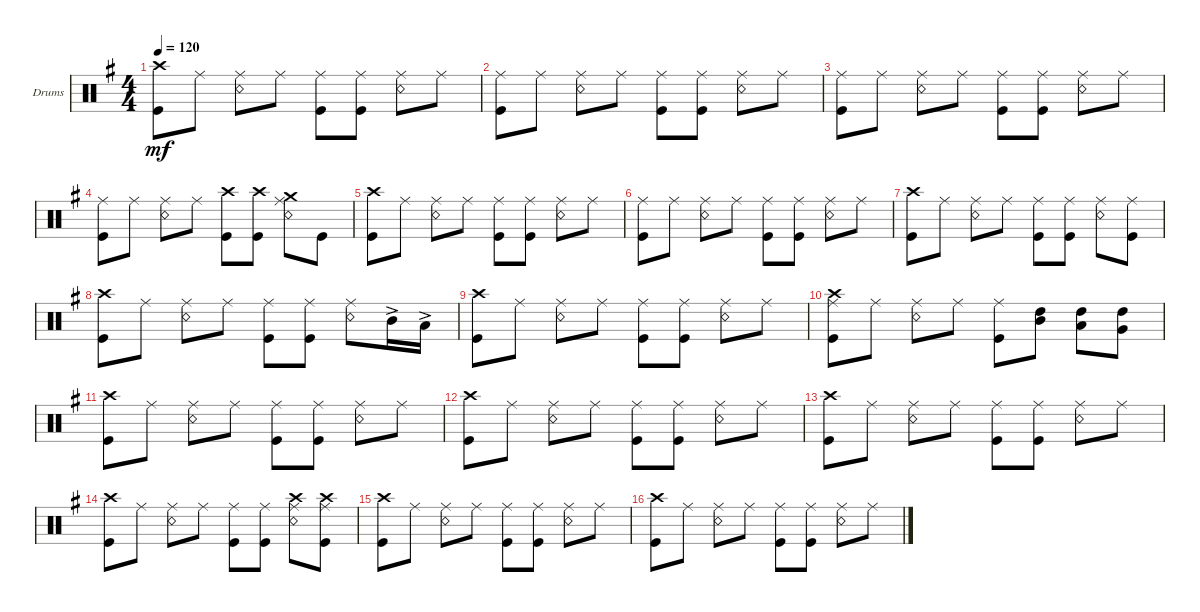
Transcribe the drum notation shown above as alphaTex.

\defaultSystemsLayout 4
\bracketExtendMode groupsimilarinstruments
\firstSystemTrackNameOrientation horizontal
\otherSystemsTrackNameOrientation horizontal
\track ("Drumkit" "Drums") {instrument percussion}
\staff {score}
\articulation defaults
\ts (4 4)
\tempo 120
\clef neutral
\ks eminor
("Kick (hit)" "Crash high (hit)").8{dy mf} "Ride (middle)".8 ("Ride (middle)" "Snare (rim shot)").8 "Ride (middle)".8 ("Ride (middle)" "Kick (hit)").8 ("Kick (hit)" "Ride (middle)").8 ("Ride (middle)" "Snare (rim shot)").8 "Ride (middle)".8 |
("Kick (hit)" "Ride (middle)").8 "Ride (middle)".8 ("Ride (middle)" "Snare (rim shot)").8 "Ride (middle)".8 ("Ride (middle)" "Kick (hit)").8 ("Kick (hit)" "Ride (middle)").8 ("Ride (middle)" "Snare (rim shot)").8 "Ride (middle)".8 |
("Kick (hit)" "Ride (middle)").8 "Ride (middle)".8 ("Ride (middle)" "Snare (rim shot)").8 "Ride (middle)".8 ("Ride (middle)" "Kick (hit)").8 ("Kick (hit)" "Ride (middle)").8 ("Ride (middle)" "Snare (rim shot)").8 "Ride (middle)".8 |
("Kick (hit)" "Ride (middle)").8 "Ride (middle)".8 ("Ride (middle)" "Snare (rim shot)").8 "Ride (middle)".8 ("Kick (hit)" "Crash high (hit)").8 ("Kick (hit)" "Crash high (hit)").8 ("Ride (middle)" "Snare (rim shot)" "Crash medium (hit)").8 "Kick (hit)".8 |
("Kick (hit)" "Crash high (hit)").8 "Ride (middle)".8 ("Ride (middle)" "Snare (rim shot)").8 "Ride (middle)".8 ("Ride (middle)" "Kick (hit)").8 ("Kick (hit)" "Ride (middle)").8 ("Ride (middle)" "Snare (rim shot)").8 "Ride (middle)".8 |
("Kick (hit)" "Ride (middle)").8 "Ride (middle)".8 ("Ride (middle)" "Snare (rim shot)").8 "Ride (middle)".8 ("Ride (middle)" "Kick (hit)").8 ("Kick (hit)" "Ride (middle)").8 ("Ride (middle)" "Snare (rim shot)").8 "Ride (middle)".8 |
("Kick (hit)" "Crash high (hit)").8 "Ride (middle)".8 ("Ride (middle)" "Snare (rim shot)").8 "Ride (middle)".8 ("Ride (middle)" "Kick (hit)").8 ("Kick (hit)" "Ride (middle)").8 ("Ride (middle)" "Snare (rim shot)").8 ("Ride (middle)" "Kick (hit)").8 |
("Kick (hit)" "Crash high (hit)").8 "Ride (middle)".8 ("Ride (middle)" "Snare (rim shot)").8 "Ride (middle)".8 ("Kick (hit)" "Ride (middle)").8 ("Kick (hit)" "Ride (middle)").8 ("Ride (middle)" "Snare (rim shot)").8 "Mid Tom (hit)"{ac}.16 "Low Tom (hit)"{ac}.16 |
("Kick (hit)" "Crash high (hit)").8 "Ride (middle)".8 ("Ride (middle)" "Snare (rim shot)").8 "Ride (middle)".8 ("Ride (middle)" "Kick (hit)").8 ("Kick (hit)" "Ride (middle)").8 ("Ride (middle)" "Snare (rim shot)").8 "Ride (middle)".8 |
("Kick (hit)" "Ride (middle)" "Crash high (hit)").8 "Ride (middle)".8 ("Ride (middle)" "Snare (rim shot)").8 "Ride (middle)".8 ("Ride (middle)" "Kick (hit)").8 ("Mid Tom (hit)" "High Tom (hit)").8 ("Low Tom (hit)" "High Tom (hit)").8 ("Very Low Tom (hit)" "High Tom (hit)").8 |
("Kick (hit)" "Crash high (hit)").8 "Ride (middle)".8 ("Ride (middle)" "Snare (rim shot)").8 "Ride (middle)".8 ("Ride (middle)" "Kick (hit)").8 ("Kick (hit)" "Ride (middle)").8 ("Ride (middle)" "Snare (rim shot)").8 "Ride (middle)".8 |
("Kick (hit)" "Crash high (hit)").8 "Ride (middle)".8 ("Ride (middle)" "Snare (rim shot)").8 "Ride (middle)".8 ("Ride (middle)" "Kick (hit)").8 ("Kick (hit)" "Ride (middle)").8 ("Ride (middle)" "Snare (rim shot)").8 "Ride (middle)".8 |
("Kick (hit)" "Crash high (hit)").8 "Ride (middle)".8 ("Ride (middle)" "Snare (rim shot)").8 "Ride (middle)".8 ("Ride (middle)" "Kick (hit)").8 ("Kick (hit)" "Ride (middle)").8 ("Ride (middle)" "Snare (rim shot)").8 "Ride (middle)".8 |
("Kick (hit)" "Crash high (hit)").8 "Ride (middle)".8 ("Ride (middle)" "Snare (rim shot)").8 "Ride (middle)".8 ("Ride (middle)" "Kick (hit)").8 ("Kick (hit)" "Ride (middle)").8 ("Ride (middle)" "Snare (rim shot)" "Crash high (hit)").8 ("Ride (middle)" "Crash high (hit)" "Kick (hit)").8 |
("Kick (hit)" "Crash high (hit)").8 "Ride (middle)".8 ("Ride (middle)" "Snare (rim shot)").8 "Ride (middle)".8 ("Ride (middle)" "Kick (hit)").8 ("Kick (hit)" "Ride (middle)").8 ("Ride (middle)" "Snare (rim shot)").8 "Ride (middle)".8 |
("Kick (hit)" "Crash high (hit)").8 "Ride (middle)".8 ("Ride (middle)" "Snare (rim shot)").8 "Ride (middle)".8 ("Ride (middle)" "Kick (hit)").8 ("Kick (hit)" "Ride (middle)").8 ("Ride (middle)" "Snare (rim shot)").8 "Ride (middle)".8
